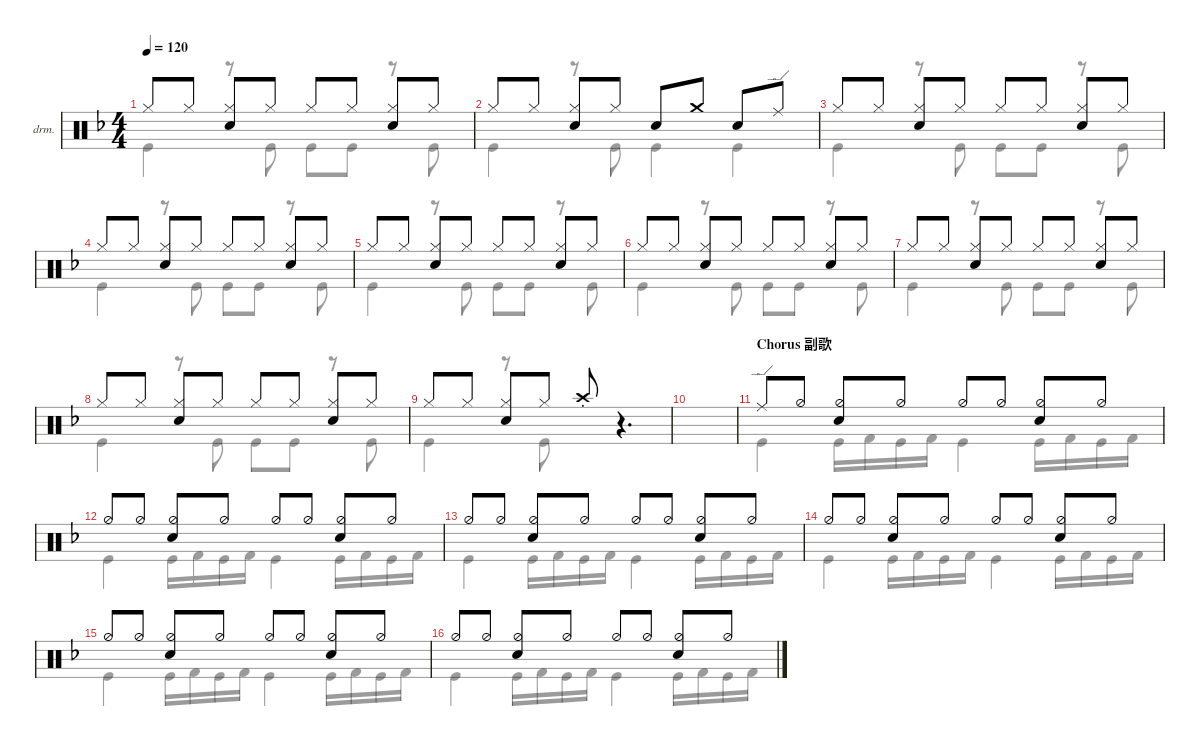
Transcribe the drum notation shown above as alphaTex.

\defaultSystemsLayout 4
\hideDynamics
\bracketExtendMode nobrackets
\firstSystemTrackNameOrientation horizontal
\track ("Drumkit" "drm.") {mute instrument percussion}
\staff {score}
\articulation defaults
\voice
\ts (4 4)
\tempo 120
\clef neutral
\ks dminor "Hi-Hat (closed)"{acc forcenatural}.8{dy mf} "Hi-Hat (closed)"{acc forcenatural}.8
("Hi-Hat (closed)"{acc forcenatural} "Snare (hit) 2"{acc forcenatural}).8 "Hi-Hat (closed)"{acc forcenatural}.8 "Hi-Hat (closed)"{acc forcenatural}.8 "Hi-Hat (closed)"{acc forcenatural}.8 ("Hi-Hat (closed)"{acc forcenatural} "Snare (hit) 2"{acc forcenatural}).8 "Hi-Hat (closed)"{acc forcenatural}.8 |
"Hi-Hat (closed)"{acc forcenatural}.8 "Hi-Hat (closed)"{acc forcenatural}.8 ("Hi-Hat (closed)"{acc forcenatural} "Snare (hit) 2"{acc forcenatural}).8 "Hi-Hat (closed)"{acc forcenatural}.8 "Snare (hit) 2"{acc forcenatural}.8 "Crash medium (hit)"{acc forcenatural}.8 "Snare (hit) 2"{acc forcenatural}.8 "Ride (edge)"{acc forcenatural}.8 |
"Hi-Hat (closed)"{acc forcenatural}.8 "Hi-Hat (closed)"{acc forcenatural}.8 ("Hi-Hat (closed)"{acc forcenatural} "Snare (hit) 2"{acc forcenatural}).8 "Hi-Hat (closed)"{acc forcenatural}.8 "Hi-Hat (closed)"{acc forcenatural}.8 "Hi-Hat (closed)"{acc forcenatural}.8 ("Hi-Hat (closed)"{acc forcenatural} "Snare (hit) 2"{acc forcenatural}).8 "Hi-Hat (closed)"{acc forcenatural}.8 |
"Hi-Hat (closed)"{acc forcenatural}.8 "Hi-Hat (closed)"{acc forcenatural}.8 ("Hi-Hat (closed)"{acc forcenatural} "Snare (hit) 2"{acc forcenatural}).8 "Hi-Hat (closed)"{acc forcenatural}.8 "Hi-Hat (closed)"{acc forcenatural}.8 "Hi-Hat (closed)"{acc forcenatural}.8 ("Hi-Hat (closed)"{acc forcenatural} "Snare (hit) 2"{acc forcenatural}).8 "Hi-Hat (closed)"{acc forcenatural}.8 |
"Hi-Hat (closed)"{acc forcenatural}.8 "Hi-Hat (closed)"{acc forcenatural}.8 ("Hi-Hat (closed)"{acc forcenatural} "Snare (hit) 2"{acc forcenatural}).8 "Hi-Hat (closed)"{acc forcenatural}.8 "Hi-Hat (closed)"{acc forcenatural}.8 "Hi-Hat (closed)"{acc forcenatural}.8 ("Hi-Hat (closed)"{acc forcenatural} "Snare (hit) 2"{acc forcenatural}).8 "Hi-Hat (closed)"{acc forcenatural}.8 |
"Hi-Hat (closed)"{acc forcenatural}.8 "Hi-Hat (closed)"{acc forcenatural}.8 ("Hi-Hat (closed)"{acc forcenatural} "Snare (hit) 2"{acc forcenatural}).8 "Hi-Hat (closed)"{acc forcenatural}.8 "Hi-Hat (closed)"{acc forcenatural}.8 "Hi-Hat (closed)"{acc forcenatural}.8 ("Hi-Hat (closed)"{acc forcenatural} "Snare (hit) 2"{acc forcenatural}).8 "Hi-Hat (closed)"{acc forcenatural}.8 |
"Hi-Hat (closed)"{acc forcenatural}.8 "Hi-Hat (closed)"{acc forcenatural}.8 ("Hi-Hat (closed)"{acc forcenatural} "Snare (hit) 2"{acc forcenatural}).8 "Hi-Hat (closed)"{acc forcenatural}.8 "Hi-Hat (closed)"{acc forcenatural}.8 "Hi-Hat (closed)"{acc forcenatural}.8 ("Hi-Hat (closed)"{acc forcenatural} "Snare (hit) 2"{acc forcenatural}).8 "Hi-Hat (closed)"{acc forcenatural}.8 |
"Hi-Hat (closed)"{acc forcenatural}.8 "Hi-Hat (closed)"{acc forcenatural}.8 ("Hi-Hat (closed)"{acc forcenatural} "Snare (hit) 2"{acc forcenatural}).8 "Hi-Hat (closed)"{acc forcenatural}.8 "Hi-Hat (closed)"{acc forcenatural}.8 "Hi-Hat (closed)"{acc forcenatural}.8 ("Hi-Hat (closed)"{acc forcenatural} "Snare (hit) 2"{acc forcenatural}).8 "Hi-Hat (closed)"{acc forcenatural}.8 |
"Hi-Hat (closed)"{acc forcenatural}.8 "Hi-Hat (closed)"{acc forcenatural}.8 ("Hi-Hat (closed)"{acc forcenatural} "Snare (hit) 2"{acc forcenatural}).8 "Hi-Hat (closed)"{acc forcenatural}.8 "Crash high (hit)"{st acc forcenatural}.8 r.4{d} |
|
\section ("" "Chorus 副歌")
"Ride (edge)"{acc forcenatural}.8 "Hi-Hat (half)"{acc forcenatural}.8 ("Hi-Hat (half)"{acc forcenatural} "Snare (hit) 2"{acc forcenatural}).8 "Hi-Hat (half)"{acc forcenatural}.8 "Hi-Hat (half)"{acc forcenatural}.8 "Hi-Hat (half)"{acc forcenatural}.8 ("Hi-Hat (half)"{acc forcenatural} "Snare (hit) 2"{acc forcenatural}).8 "Hi-Hat (half)"{acc forcenatural}.8 |
"Hi-Hat (half)"{acc forcenatural}.8 "Hi-Hat (half)"{acc forcenatural}.8 ("Hi-Hat (half)"{acc forcenatural} "Snare (hit) 2"{acc forcenatural}).8 "Hi-Hat (half)"{acc forcenatural}.8 "Hi-Hat (half)"{acc forcenatural}.8 "Hi-Hat (half)"{acc forcenatural}.8 ("Hi-Hat (half)"{acc forcenatural} "Snare (hit) 2"{acc forcenatural}).8 "Hi-Hat (half)"{acc forcenatural}.8 |
"Hi-Hat (half)"{acc forcenatural}.8 "Hi-Hat (half)"{acc forcenatural}.8 ("Hi-Hat (half)"{acc forcenatural} "Snare (hit) 2"{acc forcenatural}).8 "Hi-Hat (half)"{acc forcenatural}.8 "Hi-Hat (half)"{acc forcenatural}.8 "Hi-Hat (half)"{acc forcenatural}.8 ("Hi-Hat (half)"{acc forcenatural} "Snare (hit) 2"{acc forcenatural}).8 "Hi-Hat (half)"{acc forcenatural}.8 |
"Hi-Hat (half)"{acc forcenatural}.8 "Hi-Hat (half)"{acc forcenatural}.8 ("Hi-Hat (half)"{acc forcenatural} "Snare (hit) 2"{acc forcenatural}).8 "Hi-Hat (half)"{acc forcenatural}.8 "Hi-Hat (half)"{acc forcenatural}.8 "Hi-Hat (half)"{acc forcenatural}.8 ("Hi-Hat (half)"{acc forcenatural} "Snare (hit) 2"{acc forcenatural}).8 "Hi-Hat (half)"{acc forcenatural}.8 |
"Hi-Hat (half)"{acc forcenatural}.8 "Hi-Hat (half)"{acc forcenatural}.8 ("Hi-Hat (half)"{acc forcenatural} "Snare (hit) 2"{acc forcenatural}).8 "Hi-Hat (half)"{acc forcenatural}.8 "Hi-Hat (half)"{acc forcenatural}.8 "Hi-Hat (half)"{acc forcenatural}.8 ("Hi-Hat (half)"{acc forcenatural} "Snare (hit) 2"{acc forcenatural}).8 "Hi-Hat (half)"{acc forcenatural}.8 |
"Hi-Hat (half)"{acc forcenatural}.8 "Hi-Hat (half)"{acc forcenatural}.8 ("Hi-Hat (half)"{acc forcenatural} "Snare (hit) 2"{acc forcenatural}).8 "Hi-Hat (half)"{acc forcenatural}.8 "Hi-Hat (half)"{acc forcenatural}.8 "Hi-Hat (half)"{acc forcenatural}.8 ("Hi-Hat (half)"{acc forcenatural} "Snare (hit) 2"{acc forcenatural}).8 "Hi-Hat (half)"{acc forcenatural}.8
\voice
\clef neutral
\ottava regular
\simile none
\ks dminor "Kick (hit)"{acc forcenatural}.4{dy mf}
r.8 "Kick (hit)"{acc forcenatural}.8 "Kick (hit)"{acc forcenatural}.8 "Kick (hit)"{acc forcenatural}.8 r.8 "Kick (hit)"{acc forcenatural}.8 |
"Kick (hit)"{acc forcenatural}.4 r.8 "Kick (hit)"{acc forcenatural}.8 "Kick (hit)"{acc forcenatural}.4 "Kick (hit)"{acc forcenatural}.4 |
"Kick (hit)"{acc forcenatural}.4 r.8 "Kick (hit)"{acc forcenatural}.8 "Kick (hit)"{acc forcenatural}.8 "Kick (hit)"{acc forcenatural}.8 r.8 "Kick (hit)"{acc forcenatural}.8 |
"Kick (hit)"{acc forcenatural}.4 r.8 "Kick (hit)"{acc forcenatural}.8 "Kick (hit)"{acc forcenatural}.8 "Kick (hit)"{acc forcenatural}.8 r.8 "Kick (hit)"{acc forcenatural}.8 |
"Kick (hit)"{acc forcenatural}.4 r.8 "Kick (hit)"{acc forcenatural}.8 "Kick (hit)"{acc forcenatural}.8 "Kick (hit)"{acc forcenatural}.8 r.8 "Kick (hit)"{acc forcenatural}.8 |
"Kick (hit)"{acc forcenatural}.4 r.8 "Kick (hit)"{acc forcenatural}.8 "Kick (hit)"{acc forcenatural}.8 "Kick (hit)"{acc forcenatural}.8 r.8 "Kick (hit)"{acc forcenatural}.8 |
"Kick (hit)"{acc forcenatural}.4 r.8 "Kick (hit)"{acc forcenatural}.8 "Kick (hit)"{acc forcenatural}.8 "Kick (hit)"{acc forcenatural}.8 r.8 "Kick (hit)"{acc forcenatural}.8 |
"Kick (hit)"{acc forcenatural}.4 r.8 "Kick (hit)"{acc forcenatural}.8 "Kick (hit)"{acc forcenatural}.8 "Kick (hit)"{acc forcenatural}.8 r.8 "Kick (hit)"{acc forcenatural}.8 |
"Kick (hit)"{acc forcenatural}.4 r.8 "Kick (hit)"{acc forcenatural}.8 |
|
"Kick (hit)"{acc forcenatural}.4 "Kick (hit)"{acc forcenatural}.16 "Kick (hit) 2"{acc forcenatural}.16 "Kick (hit)"{acc forcenatural}.16 "Kick (hit) 2"{acc forcenatural}.16 "Kick (hit)"{acc forcenatural}.4 "Kick (hit)"{acc forcenatural}.16 "Kick (hit) 2"{acc forcenatural}.16 "Kick (hit)"{acc forcenatural}.16 "Kick (hit) 2"{acc forcenatural}.16 |
"Kick (hit)"{acc forcenatural}.4 "Kick (hit)"{acc forcenatural}.16 "Kick (hit) 2"{acc forcenatural}.16 "Kick (hit)"{acc forcenatural}.16 "Kick (hit) 2"{acc forcenatural}.16 "Kick (hit)"{acc forcenatural}.4 "Kick (hit)"{acc forcenatural}.16 "Kick (hit) 2"{acc forcenatural}.16 "Kick (hit)"{acc forcenatural}.16 "Kick (hit) 2"{acc forcenatural}.16 |
"Kick (hit)"{acc forcenatural}.4 "Kick (hit)"{acc forcenatural}.16 "Kick (hit) 2"{acc forcenatural}.16 "Kick (hit)"{acc forcenatural}.16 "Kick (hit) 2"{acc forcenatural}.16 "Kick (hit)"{acc forcenatural}.4 "Kick (hit)"{acc forcenatural}.16 "Kick (hit) 2"{acc forcenatural}.16 "Kick (hit)"{acc forcenatural}.16 "Kick (hit) 2"{acc forcenatural}.16 |
"Kick (hit)"{acc forcenatural}.4 "Kick (hit)"{acc forcenatural}.16 "Kick (hit) 2"{acc forcenatural}.16 "Kick (hit)"{acc forcenatural}.16 "Kick (hit) 2"{acc forcenatural}.16 "Kick (hit)"{acc forcenatural}.4 "Kick (hit)"{acc forcenatural}.16 "Kick (hit) 2"{acc forcenatural}.16 "Kick (hit)"{acc forcenatural}.16 "Kick (hit) 2"{acc forcenatural}.16 |
"Kick (hit)"{acc forcenatural}.4 "Kick (hit)"{acc forcenatural}.16 "Kick (hit) 2"{acc forcenatural}.16 "Kick (hit)"{acc forcenatural}.16 "Kick (hit) 2"{acc forcenatural}.16 "Kick (hit)"{acc forcenatural}.4 "Kick (hit)"{acc forcenatural}.16 "Kick (hit) 2"{acc forcenatural}.16 "Kick (hit)"{acc forcenatural}.16 "Kick (hit) 2"{acc forcenatural}.16 |
"Kick (hit)"{acc forcenatural}.4 "Kick (hit)"{acc forcenatural}.16 "Kick (hit) 2"{acc forcenatural}.16 "Kick (hit)"{acc forcenatural}.16 "Kick (hit) 2"{acc forcenatural}.16 "Kick (hit)"{acc forcenatural}.4 "Kick (hit)"{acc forcenatural}.16 "Kick (hit) 2"{acc forcenatural}.16 "Kick (hit)"{acc forcenatural}.16 "Kick (hit) 2"{acc forcenatural}.16
